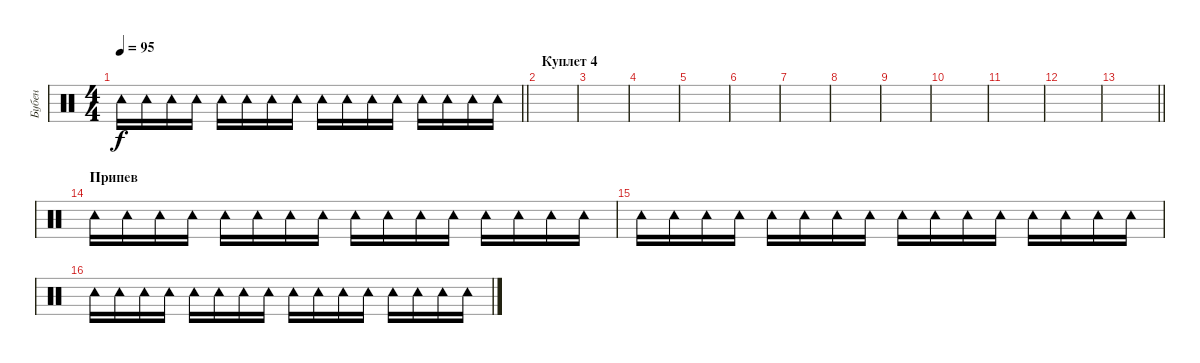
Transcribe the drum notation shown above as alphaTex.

\track ("Бубен" "Бубен") {instrument percussion}
\staff {score}
\articulation defaults
\ts (4 4)
\tempo 95
\clef neutral
\barLineRight lightlight
\ks c "Tambourine (hit)".16{dy f} "Tambourine (hit)".16 "Tambourine (hit)".16 "Tambourine (hit)".16 "Tambourine (hit)".16 "Tambourine (hit)".16 "Tambourine (hit)".16 "Tambourine (hit)".16 "Tambourine (hit)".16 "Tambourine (hit)".16 "Tambourine (hit)".16 "Tambourine (hit)".16 "Tambourine (hit)".16 "Tambourine (hit)".16 "Tambourine (hit)".16 "Tambourine (hit)".16
|
\section ("" "Куплет 4")
|
|
|
|
|
|
|
|
|
|
|
\barLineRight lightlight
|
\section ("" "Припев")
"Tambourine (hit)".16 "Tambourine (hit)".16 "Tambourine (hit)".16 "Tambourine (hit)".16 "Tambourine (hit)".16 "Tambourine (hit)".16 "Tambourine (hit)".16 "Tambourine (hit)".16 "Tambourine (hit)".16 "Tambourine (hit)".16 "Tambourine (hit)".16 "Tambourine (hit)".16 "Tambourine (hit)".16 "Tambourine (hit)".16 "Tambourine (hit)".16 "Tambourine (hit)".16 |
"Tambourine (hit)".16 "Tambourine (hit)".16 "Tambourine (hit)".16 "Tambourine (hit)".16 "Tambourine (hit)".16 "Tambourine (hit)".16 "Tambourine (hit)".16 "Tambourine (hit)".16 "Tambourine (hit)".16 "Tambourine (hit)".16 "Tambourine (hit)".16 "Tambourine (hit)".16 "Tambourine (hit)".16 "Tambourine (hit)".16 "Tambourine (hit)".16 "Tambourine (hit)".16 |
"Tambourine (hit)".16 "Tambourine (hit)".16 "Tambourine (hit)".16 "Tambourine (hit)".16 "Tambourine (hit)".16 "Tambourine (hit)".16 "Tambourine (hit)".16 "Tambourine (hit)".16 "Tambourine (hit)".16 "Tambourine (hit)".16 "Tambourine (hit)".16 "Tambourine (hit)".16 "Tambourine (hit)".16 "Tambourine (hit)".16 "Tambourine (hit)".16 "Tambourine (hit)".16
